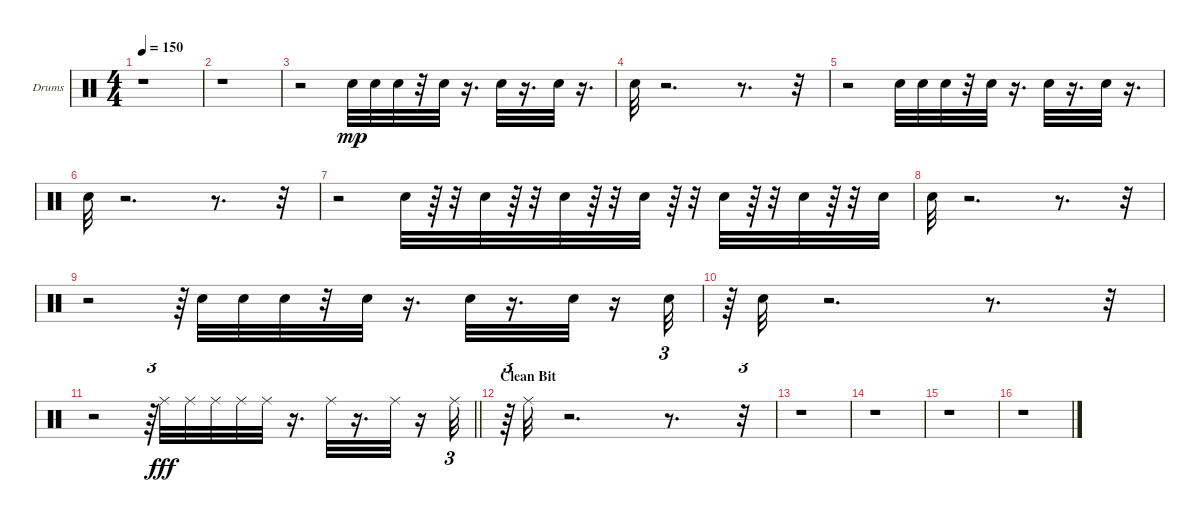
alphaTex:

\bracketExtendMode groupsimilarinstruments
\firstSystemTrackNameOrientation horizontal
\otherSystemsTrackNameOrientation horizontal
\track ("Dave McClain" "Drums") {mute instrument percussion}
\staff {score}
\articulation defaults
\ts (4 4)
\tempo 150
\clef neutral
\ks c
r.1{dy ff} |
r.1 |
r.2 "Snare (hit) 2".32{dy mp} "Snare (hit) 2".32 "Snare (hit) 2".32 r.32 "Snare (hit) 2".32 r.16{d} "Snare (hit) 2".32 r.16{d} "Snare (hit) 2".32 r.16{d} |
"Snare (hit) 2".32 r.2{d} r.8{d} r.32 |
r.2 "Snare (hit) 2".32 "Snare (hit) 2".32 "Snare (hit) 2".32 r.32 "Snare (hit) 2".32 r.16{d} "Snare (hit) 2".32 r.16{d} "Snare (hit) 2".32 r.16{d} |
"Snare (hit) 2".32 r.2{d} r.8{d} r.32 |
r.2 "Snare (hit) 2".32 r.64 r.32 "Snare (hit) 2".32 r.64 r.32 "Snare (hit) 2".32 r.64 r.32 "Snare (hit) 2".32 r.64 r.32 "Snare (hit) 2".32 r.64 r.32 "Snare (hit) 2".32 r.64 r.32 "Snare (hit) 2".32 |
"Snare (hit) 2".32 r.2{d} r.8{d} r.32 |
r.2 r.64{tu (3 2)} "Snare (hit) 2".32 "Snare (hit) 2".32 "Snare (hit) 2".32 r.32 "Snare (hit) 2".32 r.16{d} "Snare (hit) 2".32 r.16{d} "Snare (hit) 2".32 r.16 "Snare (hit) 2".32{tu (3 2)} |
r.64{tu (3 2)} "Snare (hit) 2".32 r.2{d} r.8{d} r.32{tu (3 2)} |
\barLineRight lightlight
r.2 r.64{tu (3 2)} "Ride (middle)".32{dy fff} "Ride (middle)".32 "Ride (middle)".32 "Ride (middle)".32 "Ride (middle)".32 r.16{d} "Ride (middle)".32 r.16{d} "Ride (middle)".32 r.16 "Ride (middle)".32{tu (3 2)} |
\section ("" "Clean Bit")
r.64{tu (3 2)} "Ride (middle)".32 r.2{d} r.8{d} r.32{tu (3 2)} |
r.1 |
r.1 |
r.1 |
r.1
